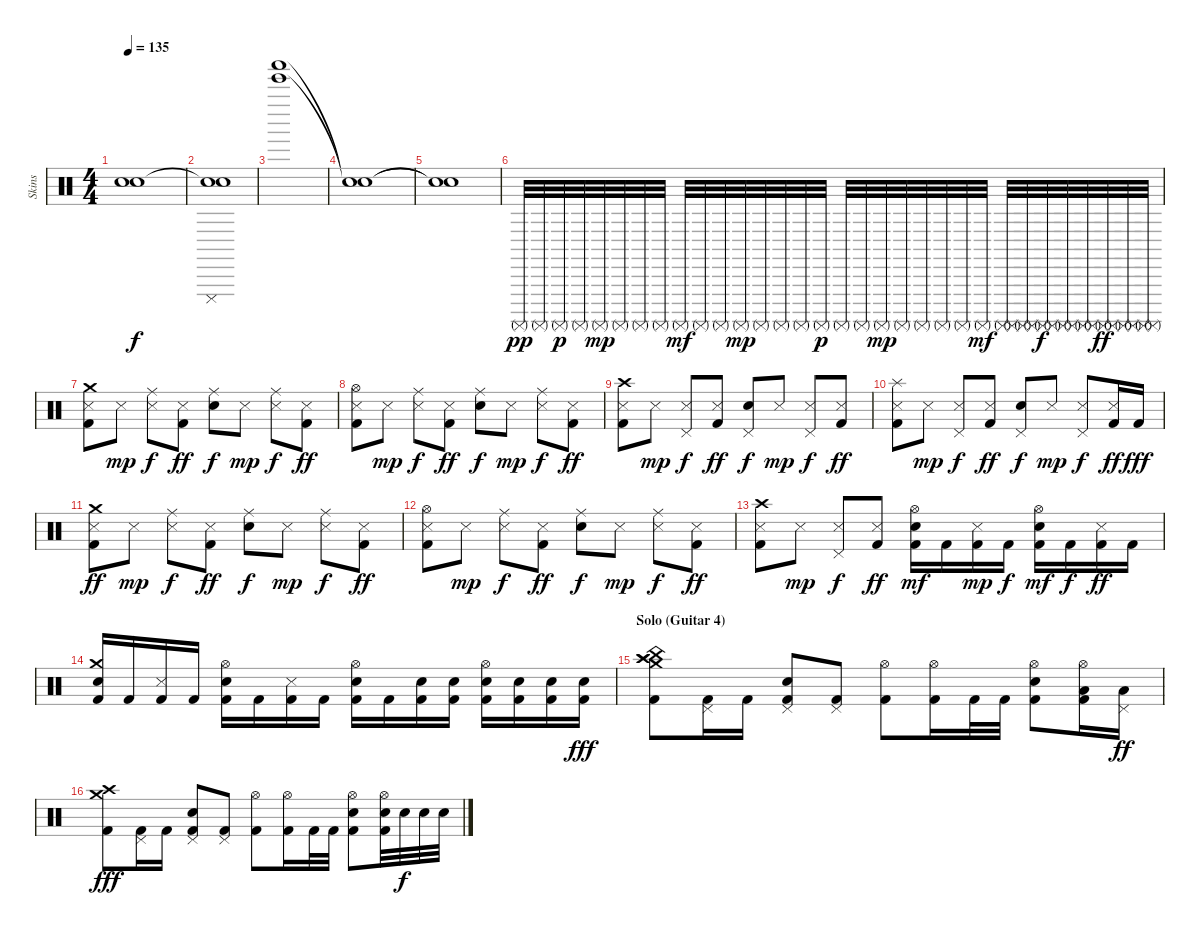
\track ("Skins" "Skins") {instrument percussion}
\staff {score}
\articulation defaults
\ts (4 4)
\tempo 135
\clef neutral
\ks c
("Snare (hit)"{t} "Snare (hit)"{t}).1{dy f} |
("Cuica (mute)" "Snare (hit)"{t} "Snare (hit)").1 |
("Tinkle Bell (hit)" "Shaker (hit)").1{volume 12} |
("Snare (hit)"{t} "Snare (hit)"{t}).1{volume 3} |
("Snare (hit)"{t} "Snare (hit)"{t}).1 |
"Surdo (mute)".32{dy pp volume 16} "Surdo (mute)".32 "Surdo (mute)".32{dy p} "Surdo (mute)".32 "Surdo (mute)".32{dy mp} "Surdo (mute)".32 "Surdo (mute)".32 "Surdo (mute)".32 "Surdo (mute)".32{dy mf} "Surdo (mute)".32 "Surdo (mute)".32 "Surdo (mute)".32{dy mp} "Surdo (mute)".32 "Surdo (mute)".32 "Surdo (mute)".32 "Surdo (mute)".32{dy p} "Surdo (mute)".32 "Surdo (mute)".32 "Surdo (mute)".32{dy mp} "Surdo (mute)".32 "Surdo (mute)".32 "Surdo (mute)".32 "Surdo (mute)".32 "Surdo (mute)".32{dy mf} ("Surdo (mute)" "Surdo (mute)").32 ("Surdo (mute)" "Surdo (mute)").32 ("Surdo (mute)" "Surdo (mute)").32{dy f} ("Surdo (mute)" "Surdo (mute)").32 ("Surdo (mute)" "Surdo (mute)").32 ("Surdo (mute)" "Surdo (mute)").32{dy ff} ("Surdo (mute)" "Surdo (mute)").32 ("Surdo (mute)" "Surdo (mute)").32 |
("Crash medium (hit)" "Snare (side stick) 3" "Kick (hit) 2").8 "Snare (side stick) 3".8{dy mp} ("Ride (middle)" "Snare (side stick) 3").8{dy f} ("Snare (side stick) 3" "Kick (hit) 2").8{dy ff} ("Ride (middle)" "Snare (hit) 2").8{dy f} "Snare (side stick) 3".8{dy mp} ("Ride (middle)" "Snare (side stick) 3").8{dy f} ("Snare (side stick) 3" "Kick (hit) 2").8{dy ff} |
("Hi-Hat (open)" "Snare (side stick) 3" "Kick (hit) 2").8 "Snare (side stick) 3".8{dy mp} ("Ride (middle)" "Snare (side stick) 3").8{dy f} ("Snare (side stick) 3" "Kick (hit) 2").8{dy ff} ("Ride (middle)" "Snare (hit) 2").8{dy f} "Snare (side stick) 3".8{dy mp} ("Ride (middle)" "Snare (side stick) 3").8{dy f} ("Snare (side stick) 3" "Kick (hit) 2").8{dy ff} |
("Crash high (hit)" "Snare (side stick) 3" "Kick (hit) 2").8 "Snare (side stick) 3".8{dy mp} ("Pedal Hi-Hat (hit)" "Snare (side stick) 3").8{dy f} ("Snare (side stick) 3" "Kick (hit) 2").8{dy ff} ("Pedal Hi-Hat (hit)" "Snare (hit) 2").8{dy f} "Snare (side stick) 3".8{dy mp} ("Pedal Hi-Hat (hit)" "Snare (side stick) 3").8{dy f} ("Snare (side stick) 3" "Kick (hit) 2").8{dy ff} |
("Splash (hit)" "Snare (side stick) 3" "Kick (hit) 2").8 "Snare (side stick) 3".8{dy mp} ("Pedal Hi-Hat (hit)" "Snare (side stick) 3").8{dy f} ("Snare (side stick) 3" "Kick (hit) 2").8{dy ff} ("Pedal Hi-Hat (hit)" "Snare (hit) 2").8{dy f} "Snare (side stick) 3".8{dy mp} ("Pedal Hi-Hat (hit)" "Snare (side stick) 3").8{dy f} ("Snare (side stick) 3" "Kick (hit) 2").16{dy ff} "Kick (hit) 2".16{dy fff} |
("Crash medium (hit)" "Snare (side stick) 3" "Kick (hit) 2").8{dy ff} "Snare (side stick) 3".8{dy mp} ("Ride (middle)" "Snare (side stick) 3").8{dy f} ("Snare (side stick) 3" "Kick (hit) 2").8{dy ff} ("Ride (middle)" "Snare (hit) 2").8{dy f} "Snare (side stick) 3".8{dy mp} ("Ride (middle)" "Snare (side stick) 3").8{dy f} ("Snare (side stick) 3" "Kick (hit) 2").8{dy ff} |
("Hi-Hat (open)" "Snare (side stick) 3" "Kick (hit) 2").8 "Snare (side stick) 3".8{dy mp} ("Ride (middle)" "Snare (side stick) 3").8{dy f} ("Snare (side stick) 3" "Kick (hit) 2").8{dy ff} ("Ride (middle)" "Snare (hit) 2").8{dy f} "Snare (side stick) 3".8{dy mp} ("Ride (middle)" "Snare (side stick) 3").8{dy f} ("Snare (side stick) 3" "Kick (hit) 2").8{dy ff} |
("Crash high (hit)" "Snare (side stick) 3" "Kick (hit) 2").8 "Snare (side stick) 3".8{dy mp} ("Pedal Hi-Hat (hit)" "Snare (side stick) 3").8{dy f} ("Snare (side stick) 3" "Kick (hit) 2").8{dy ff} ("Hi-Hat (open)" "Snare (hit) 2" "Kick (hit) 2").16{dy mf} "Kick (hit) 2".16 ("Snare (side stick) 3" "Kick (hit) 2").16{dy mp} "Kick (hit) 2".16{dy f} ("Hi-Hat (open)" "Snare (hit) 2" "Kick (hit) 2").16{dy mf} "Kick (hit) 2".16{dy f} ("Snare (side stick) 3" "Kick (hit) 2").16{dy ff} "Kick (hit) 2".16 |
("Crash medium (hit)" "Snare (hit) 2" "Kick (hit) 2").16 "Kick (hit) 2".16 ("Snare (side stick) 3" "Kick (hit) 2").16 "Kick (hit) 2".16 ("Hi-Hat (open)" "Snare (hit) 2" "Kick (hit) 2").16 "Kick (hit) 2".16 ("Snare (side stick) 3" "Kick (hit) 2").16 "Kick (hit) 2".16 ("Hi-Hat (open)" "Snare (hit) 2" "Kick (hit) 2").16 "Kick (hit) 2".16 ("Snare (hit) 2" "Kick (hit) 2").16 ("Snare (hit) 2" "Kick (hit) 2").16 ("Hi-Hat (open)" "Snare (hit) 2" "Kick (hit) 2").16 ("Snare (hit) 2" "Kick (hit) 2").16 ("Snare (hit) 2" "Kick (hit) 2").16 ("Snare (hit) 2" "Kick (hit) 2").16{dy fff} |
\section ("" "Solo (Guitar 4)")
("Crash medium (hit)" "Crash high (hit)" "China (hit)" "Crash high (hit)" "Kick (hit) 2").8 ("Pedal Hi-Hat (hit)" "Kick (hit) 2").16 "Kick (hit) 2".16 ("Pedal Hi-Hat (hit)" "Snare (hit) 2" "Kick (hit) 2").8 ("Pedal Hi-Hat (hit)" "Kick (hit) 2").8 ("Hi-Hat (open)" "Kick (hit) 2").8 ("Hi-Hat (open)" "Kick (hit) 2").16 "Kick (hit) 2".32 "Kick (hit) 2".32 ("Hi-Hat (open)" "Snare (hit) 2" "Kick (hit) 2").8 ("Hi-Hat (open)" "Low Tom (hit)" "Kick (hit) 2").16 ("Pedal Hi-Hat (hit)" "Low Tom (hit)").16{dy ff} |
("Crash medium (hit)" "Crash high (hit)" "Kick (hit) 2").8{dy fff} ("Pedal Hi-Hat (hit)" "Kick (hit) 2").16 "Kick (hit) 2".16 ("Pedal Hi-Hat (hit)" "Snare (hit) 2" "Kick (hit) 2").8 ("Pedal Hi-Hat (hit)" "Kick (hit) 2").8 ("Hi-Hat (open)" "Kick (hit) 2").8 ("Hi-Hat (open)" "Kick (hit) 2").16 "Kick (hit) 2".32 "Kick (hit) 2".32 ("Hi-Hat (open)" "Snare (hit) 2" "Kick (hit) 2").8 ("Hi-Hat (open)" "Snare (hit) 2" "Kick (hit) 2").32 "Snare (hit) 2".32{dy f} "Snare (hit) 2".32 "Snare (hit) 2".32
